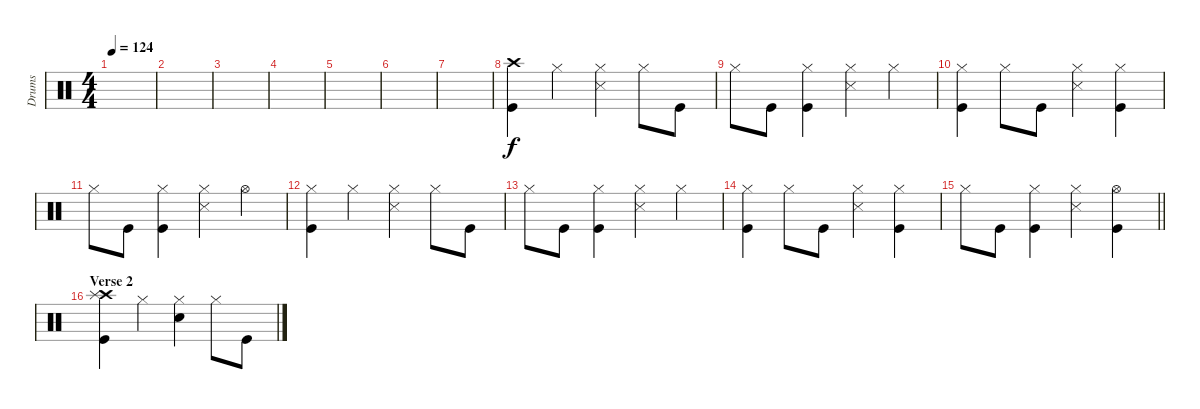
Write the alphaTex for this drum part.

\track ("Drums" "Drums") {instrument percussion}
\staff {score}
\articulation defaults
\ts (4 4)
\tempo 124
\clef neutral
\ks c
|
|
|
|
|
|
|
("Crash high (hit)" "Kick (hit)").4 "Hi-Hat (closed)".4 ("Hi-Hat (closed)" "Snare (side stick) 3").4 "Hi-Hat (closed)".8 "Kick (hit)".8 |
"Hi-Hat (closed)".8 "Kick (hit)".8 ("Hi-Hat (closed)" "Kick (hit)").4 ("Hi-Hat (closed)" "Snare (side stick) 3").4 "Hi-Hat (closed)".4 |
("Hi-Hat (closed)" "Kick (hit)").4 "Hi-Hat (closed)".8 "Kick (hit)".8 ("Hi-Hat (closed)" "Snare (side stick) 3").4 ("Hi-Hat (closed)" "Kick (hit)").4 |
"Hi-Hat (closed)".8 "Kick (hit)".8 ("Hi-Hat (closed)" "Kick (hit)").4 ("Hi-Hat (closed)" "Snare (side stick) 3").4 "Hi-Hat (open)".4 |
("Hi-Hat (closed)" "Kick (hit)").4 "Hi-Hat (closed)".4 ("Hi-Hat (closed)" "Snare (side stick) 3").4 "Hi-Hat (closed)".8 "Kick (hit)".8 |
"Hi-Hat (closed)".8 "Kick (hit)".8 ("Hi-Hat (closed)" "Kick (hit)").4 ("Hi-Hat (closed)" "Snare (side stick) 3").4 "Hi-Hat (closed)".4 |
("Hi-Hat (closed)" "Kick (hit)").4 "Hi-Hat (closed)".8 "Kick (hit)".8 ("Hi-Hat (closed)" "Snare (side stick) 3").4 ("Hi-Hat (closed)" "Kick (hit)").4 |
\barLineRight lightlight "Hi-Hat (closed)".8 "Kick (hit)".8
("Hi-Hat (closed)" "Kick (hit)").4 ("Hi-Hat (closed)" "Snare (side stick) 3").4 ("Hi-Hat (open)" "Kick (hit)").4 |
\section ("" "Verse 2")
("Crash high (hit)" "Splash (hit)" "Kick (hit)").4 "Hi-Hat (closed)".4 ("Hi-Hat (closed)" "Snare (hit) 2").4 "Hi-Hat (closed)".8 "Kick (hit)".8
